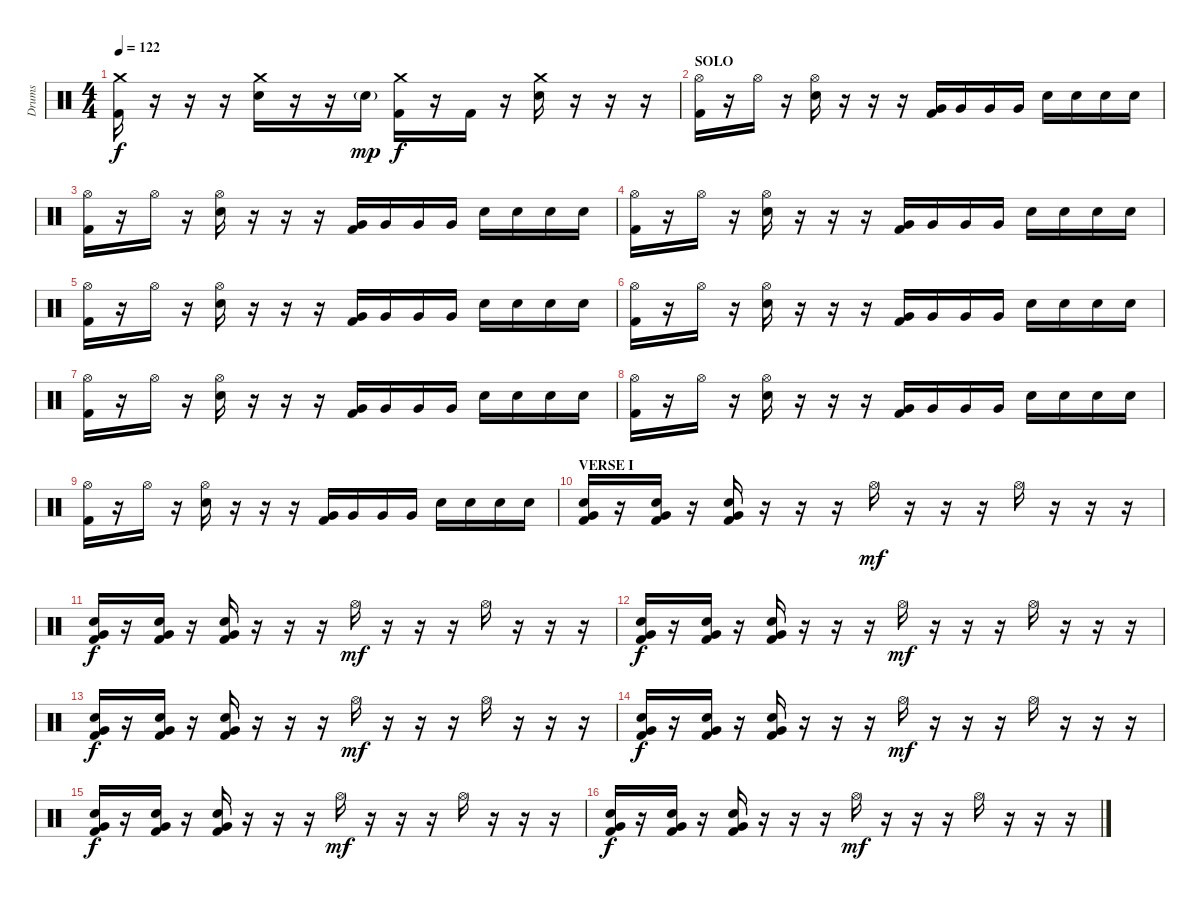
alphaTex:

\track ("Drums" "Drums") {instrument percussion}
\staff {score}
\articulation defaults
\ts (4 4)
\tempo 122
\clef neutral
\ks c
("Crash medium (hit)" "Kick (hit) 2").16{dy f} r.16 r.16 r.16 ("Crash medium (hit)" "Electric Snare (hit)").16 r.16 r.16 "Electric Snare (hit)"{g}.16{dy mp} ("Crash medium (hit)" "Kick (hit) 2").16{dy f} r.16 "Kick (hit) 2".16 r.16 ("Crash medium (hit)" "Electric Snare (hit)").16 r.16 r.16 r.16 |
\section ("" "SOLO")
("Hi-Hat (open)" "Kick (hit) 2").16 r.16 "Hi-Hat (open)".16 r.16 ("Hi-Hat (open)" "Electric Snare (hit)").16 r.16 r.16 r.16 ("Very Low Tom (hit)" "Kick (hit) 2").16 "Very Low Tom (hit)".16 "Very Low Tom (hit)".16 "Very Low Tom (hit)".16 "Electric Snare (hit)".16 "Electric Snare (hit)".16 "Electric Snare (hit)".16 "Electric Snare (hit)".16 |
("Hi-Hat (open)" "Kick (hit) 2").16 r.16 "Hi-Hat (open)".16 r.16 ("Hi-Hat (open)" "Electric Snare (hit)").16 r.16 r.16 r.16 ("Very Low Tom (hit)" "Kick (hit) 2").16 "Very Low Tom (hit)".16 "Very Low Tom (hit)".16 "Very Low Tom (hit)".16 "Electric Snare (hit)".16 "Electric Snare (hit)".16 "Electric Snare (hit)".16 "Electric Snare (hit)".16 |
("Hi-Hat (open)" "Kick (hit) 2").16 r.16 "Hi-Hat (open)".16 r.16 ("Hi-Hat (open)" "Electric Snare (hit)").16 r.16 r.16 r.16 ("Very Low Tom (hit)" "Kick (hit) 2").16 "Very Low Tom (hit)".16 "Very Low Tom (hit)".16 "Very Low Tom (hit)".16 "Electric Snare (hit)".16 "Electric Snare (hit)".16 "Electric Snare (hit)".16 "Electric Snare (hit)".16 |
("Hi-Hat (open)" "Kick (hit) 2").16 r.16 "Hi-Hat (open)".16 r.16 ("Hi-Hat (open)" "Electric Snare (hit)").16 r.16 r.16 r.16 ("Very Low Tom (hit)" "Kick (hit) 2").16 "Very Low Tom (hit)".16 "Very Low Tom (hit)".16 "Very Low Tom (hit)".16 "Electric Snare (hit)".16 "Electric Snare (hit)".16 "Electric Snare (hit)".16 "Electric Snare (hit)".16 |
("Hi-Hat (open)" "Kick (hit) 2").16 r.16 "Hi-Hat (open)".16 r.16 ("Hi-Hat (open)" "Electric Snare (hit)").16 r.16 r.16 r.16 ("Very Low Tom (hit)" "Kick (hit) 2").16 "Very Low Tom (hit)".16 "Very Low Tom (hit)".16 "Very Low Tom (hit)".16 "Electric Snare (hit)".16 "Electric Snare (hit)".16 "Electric Snare (hit)".16 "Electric Snare (hit)".16 |
("Hi-Hat (open)" "Kick (hit) 2").16 r.16 "Hi-Hat (open)".16 r.16 ("Hi-Hat (open)" "Electric Snare (hit)").16 r.16 r.16 r.16 ("Very Low Tom (hit)" "Kick (hit) 2").16 "Very Low Tom (hit)".16 "Very Low Tom (hit)".16 "Very Low Tom (hit)".16 "Electric Snare (hit)".16 "Electric Snare (hit)".16 "Electric Snare (hit)".16 "Electric Snare (hit)".16 |
("Hi-Hat (open)" "Kick (hit) 2").16 r.16 "Hi-Hat (open)".16 r.16 ("Hi-Hat (open)" "Electric Snare (hit)").16 r.16 r.16 r.16 ("Very Low Tom (hit)" "Kick (hit) 2").16 "Very Low Tom (hit)".16 "Very Low Tom (hit)".16 "Very Low Tom (hit)".16 "Electric Snare (hit)".16 "Electric Snare (hit)".16 "Electric Snare (hit)".16 "Electric Snare (hit)".16 |
("Hi-Hat (open)" "Kick (hit) 2").16 r.16 "Hi-Hat (open)".16 r.16 ("Hi-Hat (open)" "Electric Snare (hit)").16 r.16 r.16 r.16 ("Very Low Tom (hit)" "Kick (hit) 2").16 "Very Low Tom (hit)".16 "Very Low Tom (hit)".16 "Very Low Tom (hit)".16 "Electric Snare (hit)".16 "Electric Snare (hit)".16 "Electric Snare (hit)".16 "Electric Snare (hit)".16 |
\section ("" "VERSE I")
("Electric Snare (hit)" "Very Low Tom (hit)" "Kick (hit) 2").16 r.16 ("Electric Snare (hit)" "Very Low Tom (hit)" "Kick (hit) 2").16 r.16 ("Electric Snare (hit)" "Very Low Tom (hit)" "Kick (hit) 2").16 r.16 r.16 r.16 "Hi-Hat (open)".16{dy mf} r.16 r.16 r.16 "Hi-Hat (open)".16 r.16 r.16 r.16 |
("Electric Snare (hit)" "Very Low Tom (hit)" "Kick (hit) 2").16{dy f} r.16 ("Electric Snare (hit)" "Very Low Tom (hit)" "Kick (hit) 2").16 r.16 ("Electric Snare (hit)" "Very Low Tom (hit)" "Kick (hit) 2").16 r.16 r.16 r.16 "Hi-Hat (open)".16{dy mf} r.16 r.16 r.16 "Hi-Hat (open)".16 r.16 r.16 r.16 |
("Electric Snare (hit)" "Very Low Tom (hit)" "Kick (hit) 2").16{dy f} r.16 ("Electric Snare (hit)" "Very Low Tom (hit)" "Kick (hit) 2").16 r.16 ("Electric Snare (hit)" "Very Low Tom (hit)" "Kick (hit) 2").16 r.16 r.16 r.16 "Hi-Hat (open)".16{dy mf} r.16 r.16 r.16 "Hi-Hat (open)".16 r.16 r.16 r.16 |
("Electric Snare (hit)" "Very Low Tom (hit)" "Kick (hit) 2").16{dy f} r.16 ("Electric Snare (hit)" "Very Low Tom (hit)" "Kick (hit) 2").16 r.16 ("Electric Snare (hit)" "Very Low Tom (hit)" "Kick (hit) 2").16 r.16 r.16 r.16 "Hi-Hat (open)".16{dy mf} r.16 r.16 r.16 "Hi-Hat (open)".16 r.16 r.16 r.16 |
("Electric Snare (hit)" "Very Low Tom (hit)" "Kick (hit) 2").16{dy f} r.16 ("Electric Snare (hit)" "Very Low Tom (hit)" "Kick (hit) 2").16 r.16 ("Electric Snare (hit)" "Very Low Tom (hit)" "Kick (hit) 2").16 r.16 r.16 r.16 "Hi-Hat (open)".16{dy mf} r.16 r.16 r.16 "Hi-Hat (open)".16 r.16 r.16 r.16 |
("Electric Snare (hit)" "Very Low Tom (hit)" "Kick (hit) 2").16{dy f} r.16 ("Electric Snare (hit)" "Very Low Tom (hit)" "Kick (hit) 2").16 r.16 ("Electric Snare (hit)" "Very Low Tom (hit)" "Kick (hit) 2").16 r.16 r.16 r.16 "Hi-Hat (open)".16{dy mf} r.16 r.16 r.16 "Hi-Hat (open)".16 r.16 r.16 r.16 |
("Electric Snare (hit)" "Very Low Tom (hit)" "Kick (hit) 2").16{dy f} r.16 ("Electric Snare (hit)" "Very Low Tom (hit)" "Kick (hit) 2").16 r.16 ("Electric Snare (hit)" "Very Low Tom (hit)" "Kick (hit) 2").16 r.16 r.16 r.16 "Hi-Hat (open)".16{dy mf} r.16 r.16 r.16 "Hi-Hat (open)".16 r.16 r.16 r.16
